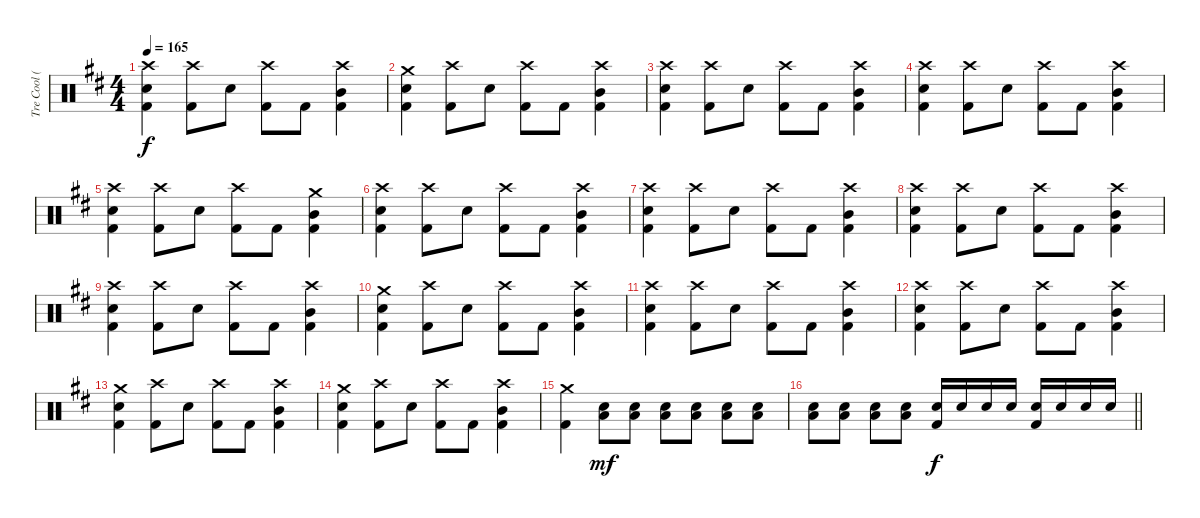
\track ("Tre Cool (Drums)" "Tre Cool (") {instrument percussion}
\staff {score}
\articulation defaults
\ts (4 4)
\tempo 165
\clef neutral
\ks d
("Crash high (hit)" "Electric Snare (hit)" "Kick (hit) 2").4{dy f} ("Crash high (hit)" "Kick (hit) 2").8 "Electric Snare (hit)".8 ("Crash high (hit)" "Kick (hit) 2").8 "Kick (hit) 2".8 ("Crash high (hit)" "Mid Tom (hit)" "Kick (hit) 2").4 |
("Crash medium (hit)" "Electric Snare (hit)" "Kick (hit) 2").4 ("Crash high (hit)" "Kick (hit) 2").8 "Electric Snare (hit)".8 ("Crash high (hit)" "Kick (hit) 2").8 "Kick (hit) 2".8 ("Crash high (hit)" "Mid Tom (hit)" "Kick (hit) 2").4 |
("Crash high (hit)" "Electric Snare (hit)" "Kick (hit) 2").4 ("Crash high (hit)" "Kick (hit) 2").8 "Electric Snare (hit)".8 ("Crash high (hit)" "Kick (hit) 2").8 "Kick (hit) 2".8 ("Crash high (hit)" "Mid Tom (hit)" "Kick (hit) 2").4 |
("Crash high (hit)" "Electric Snare (hit)" "Kick (hit) 2").4 ("Crash high (hit)" "Kick (hit) 2").8 "Electric Snare (hit)".8 ("Crash high (hit)" "Kick (hit) 2").8 "Kick (hit) 2".8 ("Crash high (hit)" "Mid Tom (hit)" "Kick (hit) 2").4 |
("Crash high (hit)" "Electric Snare (hit)" "Kick (hit) 2").4 ("Crash high (hit)" "Kick (hit) 2").8 "Electric Snare (hit)".8 ("Crash high (hit)" "Kick (hit) 2").8 "Kick (hit) 2".8 ("Crash medium (hit)" "Mid Tom (hit)" "Kick (hit) 2").4 |
("Crash high (hit)" "Electric Snare (hit)" "Kick (hit) 2").4 ("Crash high (hit)" "Kick (hit) 2").8 "Electric Snare (hit)".8 ("Crash high (hit)" "Kick (hit) 2").8 "Kick (hit) 2".8 ("Crash high (hit)" "Mid Tom (hit)" "Kick (hit) 2").4 |
("Crash high (hit)" "Electric Snare (hit)" "Kick (hit) 2").4 ("Crash high (hit)" "Kick (hit) 2").8 "Electric Snare (hit)".8 ("Crash high (hit)" "Kick (hit) 2").8 "Kick (hit) 2".8 ("Crash high (hit)" "Mid Tom (hit)" "Kick (hit) 2").4 |
("Crash high (hit)" "Electric Snare (hit)" "Kick (hit) 2").4 ("Crash high (hit)" "Kick (hit) 2").8 "Electric Snare (hit)".8 ("Crash high (hit)" "Kick (hit) 2").8 "Kick (hit) 2".8 ("Crash high (hit)" "Mid Tom (hit)" "Kick (hit) 2").4 |
("Crash high (hit)" "Electric Snare (hit)" "Kick (hit) 2").4 ("Crash high (hit)" "Kick (hit) 2").8 "Electric Snare (hit)".8 ("Crash high (hit)" "Kick (hit) 2").8 "Kick (hit) 2".8 ("Crash high (hit)" "Mid Tom (hit)" "Kick (hit) 2").4 |
("Crash medium (hit)" "Electric Snare (hit)" "Kick (hit) 2").4 ("Crash high (hit)" "Kick (hit) 2").8 "Electric Snare (hit)".8 ("Crash high (hit)" "Kick (hit) 2").8 "Kick (hit) 2".8 ("Crash high (hit)" "Mid Tom (hit)" "Kick (hit) 2").4 |
("Crash high (hit)" "Electric Snare (hit)" "Kick (hit) 2").4 ("Crash high (hit)" "Kick (hit) 2").8 "Electric Snare (hit)".8 ("Crash high (hit)" "Kick (hit) 2").8 "Kick (hit) 2".8 ("Crash high (hit)" "Mid Tom (hit)" "Kick (hit) 2").4 |
("Crash high (hit)" "Electric Snare (hit)" "Kick (hit) 2").4 ("Crash high (hit)" "Kick (hit) 2").8 "Electric Snare (hit)".8 ("Crash high (hit)" "Kick (hit) 2").8 "Kick (hit) 2".8 ("Crash high (hit)" "Mid Tom (hit)" "Kick (hit) 2").4 |
("Crash medium (hit)" "Electric Snare (hit)" "Kick (hit) 2").4 ("Crash high (hit)" "Kick (hit) 2").8 "Electric Snare (hit)".8 ("Crash high (hit)" "Kick (hit) 2").8 "Kick (hit) 2".8 ("Crash high (hit)" "Mid Tom (hit)" "Kick (hit) 2").4 |
("Crash medium (hit)" "Electric Snare (hit)" "Kick (hit) 2").4 ("Crash high (hit)" "Kick (hit) 2").8 "Electric Snare (hit)".8 ("Crash high (hit)" "Kick (hit) 2").8 "Kick (hit) 2".8 ("Crash high (hit)" "Mid Tom (hit)" "Kick (hit) 2").4 |
("Crash medium (hit)" "Kick (hit) 2").4 ("Low Tom (hit)" "Electric Snare (hit)").8{dy mf} ("Low Tom (hit)" "Electric Snare (hit)").8 ("Low Tom (hit)" "Electric Snare (hit)").8 ("Low Tom (hit)" "Electric Snare (hit)").8 ("Low Tom (hit)" "Electric Snare (hit)").8 ("Low Tom (hit)" "Electric Snare (hit)").8 |
\barLineRight lightlight
("Low Tom (hit)" "Electric Snare (hit)").8 ("Low Tom (hit)" "Electric Snare (hit)").8 ("Low Tom (hit)" "Electric Snare (hit)").8 ("Low Tom (hit)" "Electric Snare (hit)").8 ("Electric Snare (hit)" "Kick (hit) 2").16{dy f} "Electric Snare (hit)".16 "Electric Snare (hit)".16 "Electric Snare (hit)".16 ("Electric Snare (hit)" "Kick (hit) 2").16 "Electric Snare (hit)".16 "Electric Snare (hit)".16 "Electric Snare (hit)".16
